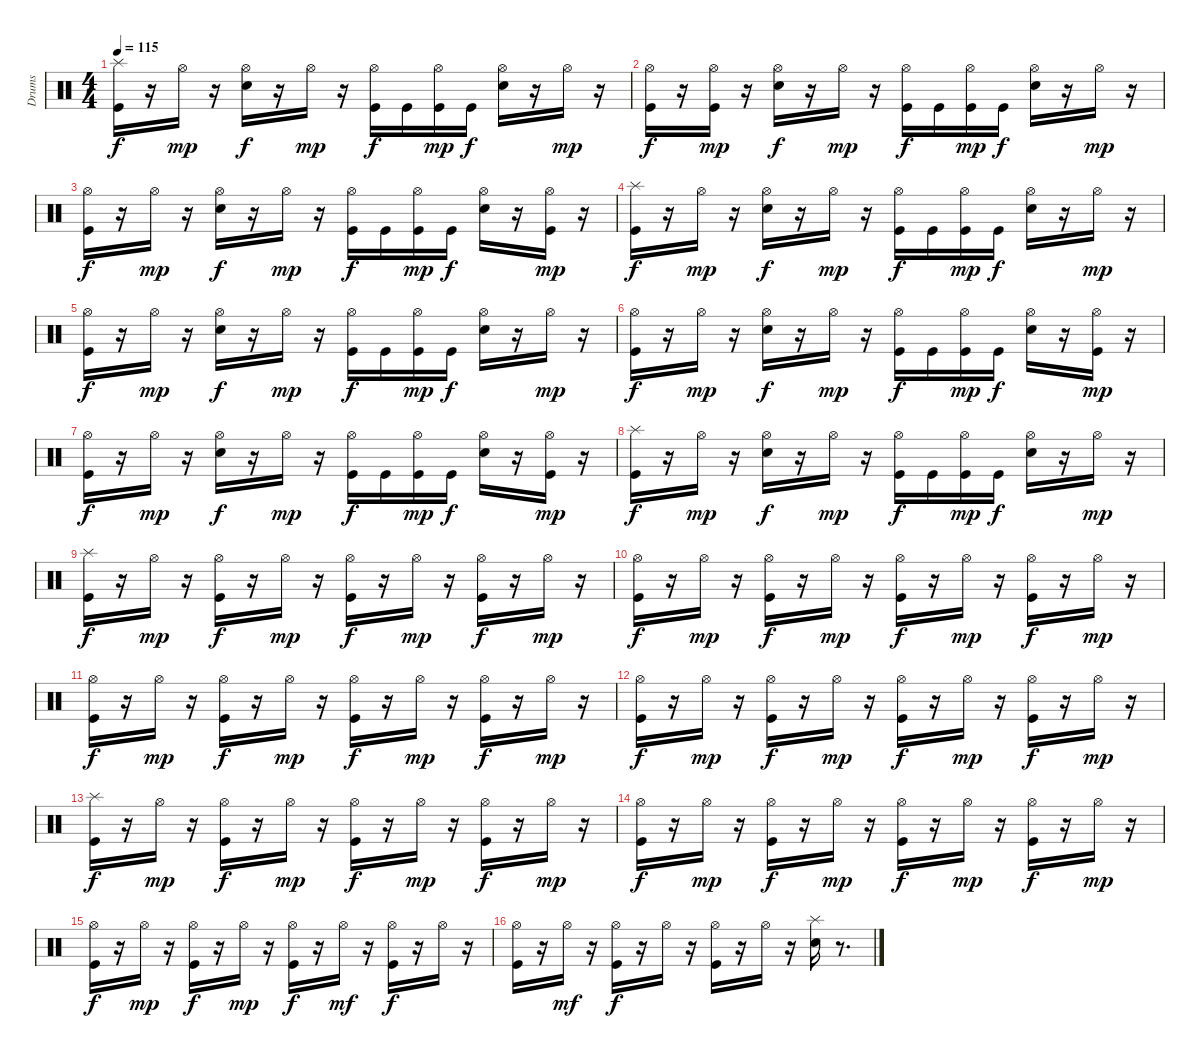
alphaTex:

\track ("Drums" "Drums") {instrument percussion}
\staff {score}
\articulation defaults
\ts (4 4)
\tempo 115
\clef neutral
\ks c
("Splash (hit)" "Kick (hit)").16{dy f} r.16 "Hi-Hat (open)".16{dy mp} r.16 ("Hi-Hat (open)" "Electric Snare (hit)").16{dy f} r.16 "Hi-Hat (open)".16{dy mp} r.16 ("Hi-Hat (open)" "Kick (hit)").16{dy f} "Kick (hit)".16 ("Kick (hit)" "Hi-Hat (open)").16{dy mp} "Kick (hit)".16{dy f} ("Hi-Hat (open)" "Electric Snare (hit)").16 r.16 "Hi-Hat (open)".16{dy mp} r.16 |
("Hi-Hat (open)" "Kick (hit)").16{dy f} r.16 ("Kick (hit)" "Hi-Hat (open)").16{dy mp} r.16 ("Hi-Hat (open)" "Electric Snare (hit)").16{dy f} r.16 "Hi-Hat (open)".16{dy mp} r.16 ("Hi-Hat (open)" "Kick (hit)").16{dy f} "Kick (hit)".16 ("Kick (hit)" "Hi-Hat (open)").16{dy mp} "Kick (hit)".16{dy f} ("Hi-Hat (open)" "Electric Snare (hit)").16 r.16 "Hi-Hat (open)".16{dy mp} r.16 |
("Hi-Hat (open)" "Kick (hit)").16{dy f} r.16 "Hi-Hat (open)".16{dy mp} r.16 ("Hi-Hat (open)" "Electric Snare (hit)").16{dy f} r.16 "Hi-Hat (open)".16{dy mp} r.16 ("Hi-Hat (open)" "Kick (hit)").16{dy f} "Kick (hit)".16 ("Kick (hit)" "Hi-Hat (open)").16{dy mp} "Kick (hit)".16{dy f} ("Hi-Hat (open)" "Electric Snare (hit)").16 r.16 ("Kick (hit)" "Hi-Hat (open)").16{dy mp} r.16 |
("Splash (hit)" "Kick (hit)").16{dy f} r.16 "Hi-Hat (open)".16{dy mp} r.16 ("Hi-Hat (open)" "Electric Snare (hit)").16{dy f} r.16 "Hi-Hat (open)".16{dy mp} r.16 ("Hi-Hat (open)" "Kick (hit)").16{dy f} "Kick (hit)".16 ("Kick (hit)" "Hi-Hat (open)").16{dy mp} "Kick (hit)".16{dy f} ("Hi-Hat (open)" "Electric Snare (hit)").16 r.16 "Hi-Hat (open)".16{dy mp} r.16 |
("Hi-Hat (open)" "Kick (hit)").16{dy f} r.16 "Hi-Hat (open)".16{dy mp} r.16 ("Hi-Hat (open)" "Electric Snare (hit)").16{dy f} r.16 "Hi-Hat (open)".16{dy mp} r.16 ("Hi-Hat (open)" "Kick (hit)").16{dy f} "Kick (hit)".16 ("Kick (hit)" "Hi-Hat (open)").16{dy mp} "Kick (hit)".16{dy f} ("Hi-Hat (open)" "Electric Snare (hit)").16 r.16 "Hi-Hat (open)".16{dy mp} r.16 |
("Hi-Hat (open)" "Kick (hit)").16{dy f} r.16 "Hi-Hat (open)".16{dy mp} r.16 ("Hi-Hat (open)" "Electric Snare (hit)").16{dy f} r.16 "Hi-Hat (open)".16{dy mp} r.16 ("Hi-Hat (open)" "Kick (hit)").16{dy f} "Kick (hit)".16 ("Kick (hit)" "Hi-Hat (open)").16{dy mp} "Kick (hit)".16{dy f} ("Hi-Hat (open)" "Electric Snare (hit)").16 r.16 ("Kick (hit)" "Hi-Hat (open)").16{dy mp} r.16 |
("Hi-Hat (open)" "Kick (hit)").16{dy f} r.16 "Hi-Hat (open)".16{dy mp} r.16 ("Hi-Hat (open)" "Electric Snare (hit)").16{dy f} r.16 "Hi-Hat (open)".16{dy mp} r.16 ("Hi-Hat (open)" "Kick (hit)").16{dy f} "Kick (hit)".16 ("Kick (hit)" "Hi-Hat (open)").16{dy mp} "Kick (hit)".16{dy f} ("Hi-Hat (open)" "Electric Snare (hit)").16 r.16 ("Kick (hit)" "Hi-Hat (open)").16{dy mp} r.16 |
("Splash (hit)" "Kick (hit)").16{dy f} r.16 "Hi-Hat (open)".16{dy mp} r.16 ("Hi-Hat (open)" "Electric Snare (hit)").16{dy f} r.16 "Hi-Hat (open)".16{dy mp} r.16 ("Hi-Hat (open)" "Kick (hit)").16{dy f} "Kick (hit)".16 ("Kick (hit)" "Hi-Hat (open)").16{dy mp} "Kick (hit)".16{dy f} ("Hi-Hat (open)" "Electric Snare (hit)").16 r.16 "Hi-Hat (open)".16{dy mp} r.16 |
("Kick (hit)" "Splash (hit)").16{dy f} r.16 "Hi-Hat (open)".16{dy mp} r.16 ("Hi-Hat (open)" "Kick (hit)").16{dy f} r.16 "Hi-Hat (open)".16{dy mp} r.16 ("Hi-Hat (open)" "Kick (hit)").16{dy f} r.16 "Hi-Hat (open)".16{dy mp} r.16 ("Hi-Hat (open)" "Kick (hit)").16{dy f} r.16 "Hi-Hat (open)".16{dy mp} r.16 |
("Hi-Hat (open)" "Kick (hit)").16{dy f} r.16 "Hi-Hat (open)".16{dy mp} r.16 ("Hi-Hat (open)" "Kick (hit)").16{dy f} r.16 "Hi-Hat (open)".16{dy mp} r.16 ("Hi-Hat (open)" "Kick (hit)").16{dy f} r.16 "Hi-Hat (open)".16{dy mp} r.16 ("Hi-Hat (open)" "Kick (hit)").16{dy f} r.16 "Hi-Hat (open)".16{dy mp} r.16 |
("Hi-Hat (open)" "Kick (hit)").16{dy f} r.16 "Hi-Hat (open)".16{dy mp} r.16 ("Hi-Hat (open)" "Kick (hit)").16{dy f} r.16 "Hi-Hat (open)".16{dy mp} r.16 ("Hi-Hat (open)" "Kick (hit)").16{dy f} r.16 "Hi-Hat (open)".16{dy mp} r.16 ("Hi-Hat (open)" "Kick (hit)").16{dy f} r.16 "Hi-Hat (open)".16{dy mp} r.16 |
("Hi-Hat (open)" "Kick (hit)").16{dy f} r.16 "Hi-Hat (open)".16{dy mp} r.16 ("Hi-Hat (open)" "Kick (hit)").16{dy f} r.16 "Hi-Hat (open)".16{dy mp} r.16 ("Hi-Hat (open)" "Kick (hit)").16{dy f} r.16 "Hi-Hat (open)".16{dy mp} r.16 ("Hi-Hat (open)" "Kick (hit)").16{dy f} r.16 "Hi-Hat (open)".16{dy mp} r.16 |
("Splash (hit)" "Kick (hit)").16{dy f} r.16 "Hi-Hat (open)".16{dy mp} r.16 ("Hi-Hat (open)" "Kick (hit)").16{dy f} r.16 "Hi-Hat (open)".16{dy mp} r.16 ("Hi-Hat (open)" "Kick (hit)").16{dy f} r.16 "Hi-Hat (open)".16{dy mp} r.16 ("Hi-Hat (open)" "Kick (hit)").16{dy f} r.16 "Hi-Hat (open)".16{dy mp} r.16 |
("Hi-Hat (open)" "Kick (hit)").16{dy f} r.16 "Hi-Hat (open)".16{dy mp} r.16 ("Hi-Hat (open)" "Kick (hit)").16{dy f} r.16 "Hi-Hat (open)".16{dy mp} r.16 ("Hi-Hat (open)" "Kick (hit)").16{dy f} r.16 "Hi-Hat (open)".16{dy mp} r.16 ("Hi-Hat (open)" "Kick (hit)").16{dy f} r.16 "Hi-Hat (open)".16{dy mp} r.16 |
("Hi-Hat (open)" "Kick (hit)").16{dy f} r.16 "Hi-Hat (open)".16{dy mp} r.16 ("Hi-Hat (open)" "Kick (hit)").16{dy f} r.16 "Hi-Hat (open)".16{dy mp} r.16 ("Hi-Hat (open)" "Kick (hit)").16{dy f} r.16 "Hi-Hat (open)".16{dy mf} r.16 ("Hi-Hat (open)" "Kick (hit)").16{dy f} r.16 "Hi-Hat (open)".16 r.16 |
("Hi-Hat (open)" "Kick (hit)").16 r.16 "Hi-Hat (open)".16{dy mf} r.16 ("Hi-Hat (open)" "Kick (hit)").16{dy f} r.16 "Hi-Hat (open)".16 r.16 ("Hi-Hat (open)" "Kick (hit)").16 r.16 "Hi-Hat (open)".16 r.16 ("Splash (hit)" "Electric Snare (hit)").16 r.8{d}
